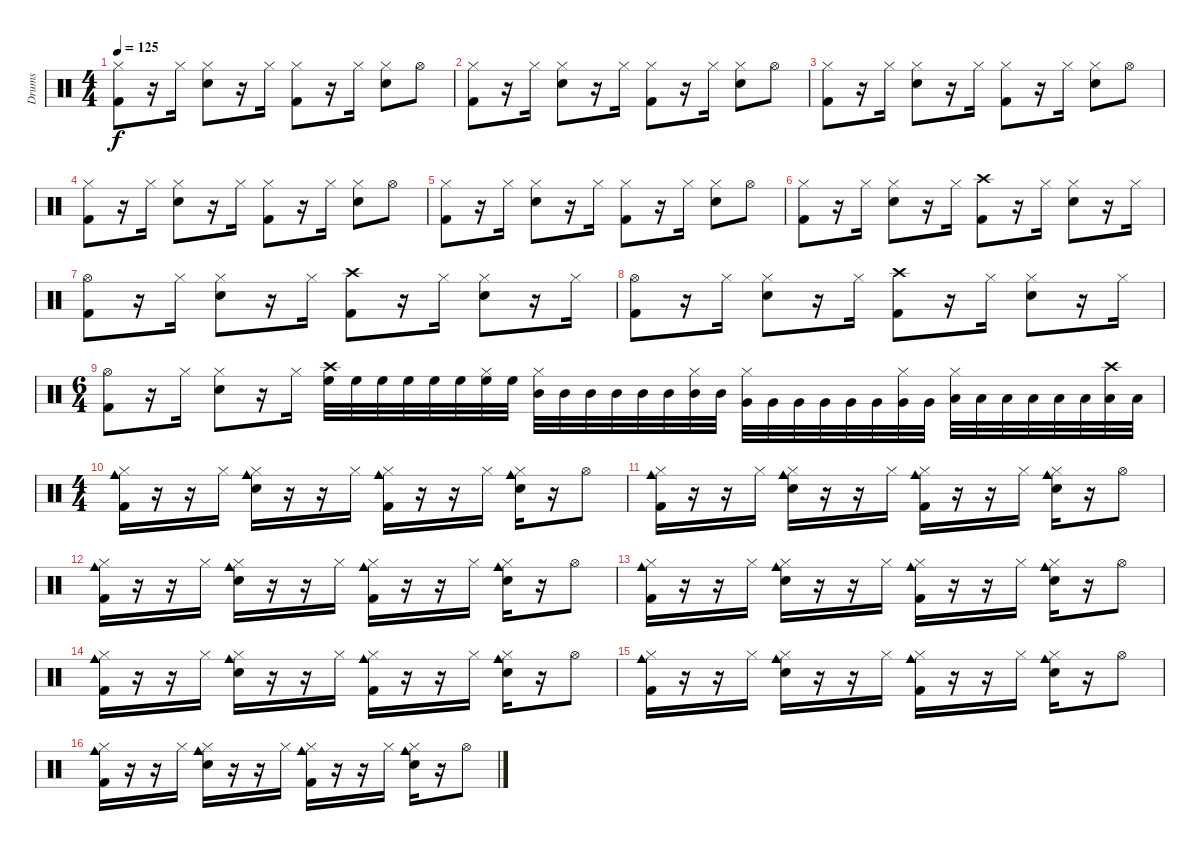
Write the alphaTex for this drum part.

\track ("Drums" "Drums") {instrument percussion}
\staff {score}
\articulation defaults
\ts (4 4)
\tempo 125
\clef neutral
\ks c
("Hi-Hat (closed)" "Kick (hit) 2").8{dy f} r.16 "Hi-Hat (closed)".16 ("Hi-Hat (closed)" "Electric Snare (hit)").8 r.16 "Hi-Hat (closed)".16 ("Hi-Hat (closed)" "Kick (hit) 2").8 r.16 "Hi-Hat (closed)".16 ("Hi-Hat (closed)" "Electric Snare (hit)").8 "Hi-Hat (open)".8 |
("Hi-Hat (closed)" "Kick (hit) 2").8 r.16 "Hi-Hat (closed)".16 ("Hi-Hat (closed)" "Electric Snare (hit)").8 r.16 "Hi-Hat (closed)".16 ("Hi-Hat (closed)" "Kick (hit) 2").8 r.16 "Hi-Hat (closed)".16 ("Hi-Hat (closed)" "Electric Snare (hit)").8 "Hi-Hat (open)".8 |
("Hi-Hat (closed)" "Kick (hit) 2").8 r.16 "Hi-Hat (closed)".16 ("Hi-Hat (closed)" "Electric Snare (hit)").8 r.16 "Hi-Hat (closed)".16 ("Hi-Hat (closed)" "Kick (hit) 2").8 r.16 "Hi-Hat (closed)".16 ("Hi-Hat (closed)" "Electric Snare (hit)").8 "Hi-Hat (open)".8 |
("Hi-Hat (closed)" "Kick (hit) 2").8 r.16 "Hi-Hat (closed)".16 ("Hi-Hat (closed)" "Electric Snare (hit)").8 r.16 "Hi-Hat (closed)".16 ("Hi-Hat (closed)" "Kick (hit) 2").8 r.16 "Hi-Hat (closed)".16 ("Hi-Hat (closed)" "Electric Snare (hit)").8 "Hi-Hat (open)".8 |
("Hi-Hat (closed)" "Kick (hit) 2").8 r.16 "Hi-Hat (closed)".16 ("Hi-Hat (closed)" "Electric Snare (hit)").8 r.16 "Hi-Hat (closed)".16 ("Hi-Hat (closed)" "Kick (hit) 2").8 r.16 "Hi-Hat (closed)".16 ("Hi-Hat (closed)" "Electric Snare (hit)").8 "Hi-Hat (open)".8 |
("Hi-Hat (closed)" "Kick (hit) 2").8 r.16 "Hi-Hat (closed)".16 ("Hi-Hat (closed)" "Electric Snare (hit)").8 r.16 "Hi-Hat (closed)".16 ("Crash high (hit)" "Kick (hit) 2").8 r.16 "Hi-Hat (closed)".16 ("Hi-Hat (closed)" "Electric Snare (hit)").8 r.16 "Hi-Hat (closed)".16 |
("Hi-Hat (open)" "Kick (hit) 2").8 r.16 "Hi-Hat (closed)".16 ("Hi-Hat (closed)" "Electric Snare (hit)").8 r.16 "Hi-Hat (closed)".16 ("Crash high (hit)" "Kick (hit) 2").8 r.16 "Hi-Hat (closed)".16 ("Hi-Hat (closed)" "Electric Snare (hit)").8 r.16 "Hi-Hat (closed)".16 |
("Hi-Hat (open)" "Kick (hit) 2").8 r.16 "Hi-Hat (closed)".16 ("Hi-Hat (closed)" "Electric Snare (hit)").8 r.16 "Hi-Hat (closed)".16 ("Crash high (hit)" "Kick (hit) 2").8 r.16 "Hi-Hat (closed)".16 ("Hi-Hat (closed)" "Electric Snare (hit)").8 r.16 "Hi-Hat (closed)".16 |
\ts (6 4)
("Hi-Hat (open)" "Kick (hit) 2").8 r.16 "Hi-Hat (closed)".16 ("Hi-Hat (closed)" "Electric Snare (hit)").8 r.16 "Hi-Hat (closed)".16 ("Crash high (hit)" "High Floor Tom (hit)").32 "High Floor Tom (hit)".32 "High Floor Tom (hit)".32 "High Floor Tom (hit)".32 "High Floor Tom (hit)".32 "High Floor Tom (hit)".32 ("Hi-Hat (closed)" "High Floor Tom (hit)").32 "High Floor Tom (hit)".32 ("Hi-Hat (closed)" "Mid Tom (hit)").32 "Mid Tom (hit)".32 "Mid Tom (hit)".32 "Mid Tom (hit)".32 "Mid Tom (hit)".32 "Mid Tom (hit)".32 ("Hi-Hat (closed)" "Mid Tom (hit)").32 "Mid Tom (hit)".32 ("Hi-Hat (closed)" "Very Low Tom (hit)").32 "Very Low Tom (hit)".32 "Very Low Tom (hit)".32 "Very Low Tom (hit)".32 "Very Low Tom (hit)".32 "Very Low Tom (hit)".32 ("Hi-Hat (closed)" "Very Low Tom (hit)").32 "Very Low Tom (hit)".32 ("Hi-Hat (closed)" "Low Floor Tom (hit)").32 "Low Floor Tom (hit)".32 "Low Floor Tom (hit)".32 "Low Floor Tom (hit)".32 "Low Floor Tom (hit)".32 "Low Floor Tom (hit)".32 ("Crash high (hit)" "Low Floor Tom (hit)").32 "Low Floor Tom (hit)".32 |
\ts (4 4)
("Cowbell medium (hit)" "Hi-Hat (closed)" "Kick (hit) 2").16 r.16 r.16 "Hi-Hat (closed)".16 ("Cowbell medium (hit)" "Hi-Hat (closed)" "Electric Snare (hit)").16 r.16 r.16 "Hi-Hat (closed)".16 ("Cowbell medium (hit)" "Hi-Hat (closed)" "Kick (hit) 2").16 r.16 r.16 "Hi-Hat (closed)".16 ("Cowbell medium (hit)" "Hi-Hat (closed)" "Electric Snare (hit)").16 r.16 "Hi-Hat (open)".8 |
("Cowbell medium (hit)" "Hi-Hat (closed)" "Kick (hit) 2").16 r.16 r.16 "Hi-Hat (closed)".16 ("Cowbell medium (hit)" "Hi-Hat (closed)" "Electric Snare (hit)").16 r.16 r.16 "Hi-Hat (closed)".16 ("Cowbell medium (hit)" "Hi-Hat (closed)" "Kick (hit) 2").16 r.16 r.16 "Hi-Hat (closed)".16 ("Cowbell medium (hit)" "Hi-Hat (closed)" "Electric Snare (hit)").16 r.16 "Hi-Hat (open)".8 |
("Cowbell medium (hit)" "Hi-Hat (closed)" "Kick (hit) 2").16 r.16 r.16 "Hi-Hat (closed)".16 ("Cowbell medium (hit)" "Hi-Hat (closed)" "Electric Snare (hit)").16 r.16 r.16 "Hi-Hat (closed)".16 ("Cowbell medium (hit)" "Hi-Hat (closed)" "Kick (hit) 2").16 r.16 r.16 "Hi-Hat (closed)".16 ("Cowbell medium (hit)" "Hi-Hat (closed)" "Electric Snare (hit)").16 r.16 "Hi-Hat (open)".8 |
("Cowbell medium (hit)" "Hi-Hat (closed)" "Kick (hit) 2").16 r.16 r.16 "Hi-Hat (closed)".16 ("Cowbell medium (hit)" "Hi-Hat (closed)" "Electric Snare (hit)").16 r.16 r.16 "Hi-Hat (closed)".16 ("Cowbell medium (hit)" "Hi-Hat (closed)" "Kick (hit) 2").16 r.16 r.16 "Hi-Hat (closed)".16 ("Cowbell medium (hit)" "Hi-Hat (closed)" "Electric Snare (hit)").16 r.16 "Hi-Hat (open)".8 |
("Cowbell medium (hit)" "Hi-Hat (closed)" "Kick (hit) 2").16 r.16 r.16 "Hi-Hat (closed)".16 ("Cowbell medium (hit)" "Hi-Hat (closed)" "Electric Snare (hit)").16 r.16 r.16 "Hi-Hat (closed)".16 ("Cowbell medium (hit)" "Hi-Hat (closed)" "Kick (hit) 2").16 r.16 r.16 "Hi-Hat (closed)".16 ("Cowbell medium (hit)" "Hi-Hat (closed)" "Electric Snare (hit)").16 r.16 "Hi-Hat (open)".8 |
("Cowbell medium (hit)" "Hi-Hat (closed)" "Kick (hit) 2").16 r.16 r.16 "Hi-Hat (closed)".16 ("Cowbell medium (hit)" "Hi-Hat (closed)" "Electric Snare (hit)").16 r.16 r.16 "Hi-Hat (closed)".16 ("Cowbell medium (hit)" "Hi-Hat (closed)" "Kick (hit) 2").16 r.16 r.16 "Hi-Hat (closed)".16 ("Cowbell medium (hit)" "Hi-Hat (closed)" "Electric Snare (hit)").16 r.16 "Hi-Hat (open)".8 |
("Cowbell medium (hit)" "Hi-Hat (closed)" "Kick (hit) 2").16 r.16 r.16 "Hi-Hat (closed)".16 ("Cowbell medium (hit)" "Hi-Hat (closed)" "Electric Snare (hit)").16 r.16 r.16 "Hi-Hat (closed)".16 ("Cowbell medium (hit)" "Hi-Hat (closed)" "Kick (hit) 2").16 r.16 r.16 "Hi-Hat (closed)".16 ("Cowbell medium (hit)" "Hi-Hat (closed)" "Electric Snare (hit)").16 r.16 "Hi-Hat (open)".8
